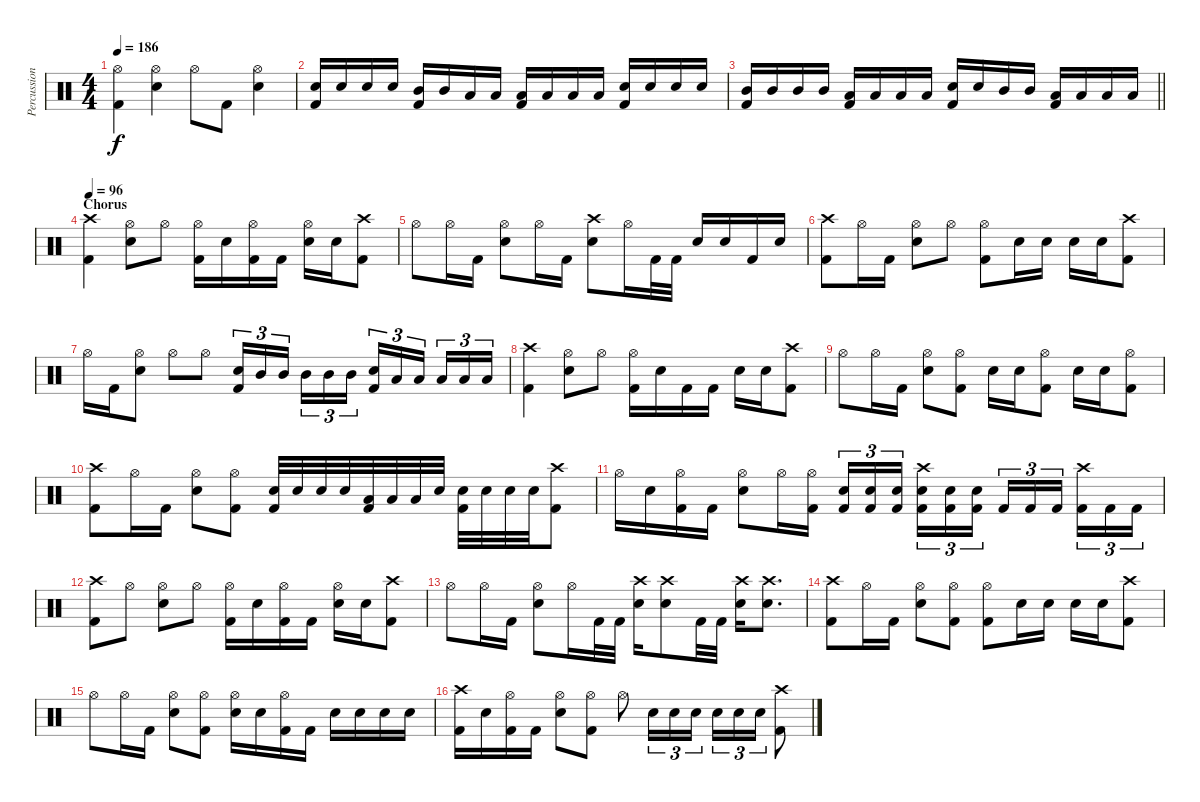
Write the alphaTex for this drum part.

\track ("Percussion" "Percussion") {instrument percussion}
\staff {score}
\articulation defaults
\ts (4 4)
\tempo 186
\clef neutral
\ks c
("Hi-Hat (open)" "Kick (hit) 2").4{dy f} ("Hi-Hat (open)" "Snare (hit) 2").4 "Hi-Hat (open)".8 "Kick (hit) 2".8 ("Hi-Hat (open)" "Snare (hit) 2").4 |
("Snare (hit) 2" "Kick (hit) 2").16 "Snare (hit) 2".16 "Snare (hit) 2".16 "Snare (hit) 2".16 ("Mid Tom (hit)" "Kick (hit) 2").16 "Mid Tom (hit)".16 "Low Tom (hit)".16 "Low Tom (hit)".16 ("Low Tom (hit)" "Kick (hit) 2").16 "Low Tom (hit)".16 "Low Tom (hit)".16 "Low Tom (hit)".16 ("Snare (hit) 2" "Kick (hit) 2").16 "Snare (hit) 2".16 "Snare (hit) 2".16 "Snare (hit) 2".16 |
\barLineRight lightlight
("Mid Tom (hit)" "Kick (hit) 2").16 "Mid Tom (hit)".16 "Mid Tom (hit)".16 "Mid Tom (hit)".16 ("Low Tom (hit)" "Kick (hit) 2").16 "Low Tom (hit)".16 "Low Tom (hit)".16 "Low Tom (hit)".16 ("Snare (hit) 2" "Kick (hit) 2").16 "Snare (hit) 2".16 "Mid Tom (hit)".16 "Mid Tom (hit)".16 ("Low Tom (hit)" "Kick (hit) 2").16 "Low Tom (hit)".16 "Low Tom (hit)".16 "Low Tom (hit)".16 |
\section ("" "Chorus")
\tempo 96
("Crash high (hit)" "Kick (hit) 2").4 ("Hi-Hat (open)" "Snare (hit) 2").8 "Hi-Hat (open)".8 ("Hi-Hat (open)" "Kick (hit) 2").16 "Snare (hit) 2".16 ("Hi-Hat (open)" "Kick (hit) 2").16 "Kick (hit) 2".16 ("Hi-Hat (open)" "Snare (hit) 2").16 "Snare (hit) 2".16 ("Crash high (hit)" "Kick (hit) 2").8 |
"Hi-Hat (open)".8 "Hi-Hat (open)".16 "Kick (hit) 2".16 ("Hi-Hat (open)" "Snare (hit) 2").8 "Hi-Hat (open)".16 "Kick (hit) 2".16 ("Crash high (hit)" "Snare (hit) 2").8 "Hi-Hat (open)".16 "Kick (hit) 2".32 "Kick (hit) 2".32 "Snare (hit) 2".16 "Snare (hit) 2".16 "Kick (hit) 2".16 "Snare (hit) 2".16 |
("Crash high (hit)" "Kick (hit) 2").8 "Hi-Hat (open)".16 "Kick (hit) 2".16 ("Hi-Hat (open)" "Snare (hit) 2").8 "Hi-Hat (open)".8 ("Hi-Hat (open)" "Kick (hit) 2").8 "Snare (hit) 2".16 "Snare (hit) 2".16 "Snare (hit) 2".16 "Snare (hit) 2".16 ("Crash high (hit)" "Kick (hit) 2").8 |
"Hi-Hat (open)".16 "Kick (hit) 2".16 ("Hi-Hat (open)" "Snare (hit) 2").8 "Hi-Hat (open)".8 "Hi-Hat (open)".8 ("Snare (hit) 2" "Kick (hit) 2").16{tu (3 2)} "Mid Tom (hit)".16{tu (3 2)} "Mid Tom (hit)".16{tu (3 2)} "Mid Tom (hit)".16{tu (3 2)} "Mid Tom (hit)".16{tu (3 2)} "Mid Tom (hit)".16{tu (3 2)} ("Snare (hit) 2" "Kick (hit) 2").16{tu (3 2)} "Low Tom (hit)".16{tu (3 2)} "Low Tom (hit)".16{tu (3 2)} "Low Tom (hit)".16{tu (3 2)} "Low Tom (hit)".16{tu (3 2)} "Low Tom (hit)".16{tu (3 2)} |
("Crash high (hit)" "Kick (hit) 2").4 ("Hi-Hat (open)" "Snare (hit) 2").8 "Hi-Hat (open)".8 ("Hi-Hat (open)" "Kick (hit) 2").16 "Snare (hit) 2".16 "Kick (hit) 2".16 "Kick (hit) 2".16 "Snare (hit) 2".16 "Snare (hit) 2".16 ("Crash high (hit)" "Kick (hit) 2").8 |
"Hi-Hat (open)".8 "Hi-Hat (open)".16 "Kick (hit) 2".16 ("Hi-Hat (open)" "Snare (hit) 2").8 ("Hi-Hat (open)" "Kick (hit) 2").8 "Snare (hit) 2".16 "Snare (hit) 2".16 ("Hi-Hat (open)" "Kick (hit) 2").8 "Snare (hit) 2".16 "Snare (hit) 2".16 ("Hi-Hat (open)" "Kick (hit) 2").8 |
("Crash high (hit)" "Kick (hit) 2").8 "Hi-Hat (open)".16 "Kick (hit) 2".16 ("Hi-Hat (open)" "Snare (hit) 2").8 ("Hi-Hat (open)" "Kick (hit) 2").8 ("Snare (hit) 2" "Kick (hit) 2").32 "Snare (hit) 2".32 "Snare (hit) 2".32 "Snare (hit) 2".32 ("Low Tom (hit)" "Kick (hit) 2").32 "Low Tom (hit)".32 "Low Tom (hit)".32 "Snare (hit) 2".32 ("Snare (hit) 2" "Kick (hit) 2").32 "Snare (hit) 2".32 "Snare (hit) 2".32 "Snare (hit) 2".32 ("Crash high (hit)" "Kick (hit) 2").8 |
"Hi-Hat (open)".16 "Snare (hit) 2".16 ("Hi-Hat (open)" "Kick (hit) 2").16 "Kick (hit) 2".16 ("Hi-Hat (open)" "Snare (hit) 2").8 "Hi-Hat (open)".16 ("Hi-Hat (open)" "Kick (hit) 2").16 ("Snare (hit) 2" "Kick (hit) 2").16{tu (3 2)} ("Snare (hit) 2" "Kick (hit) 2").16{tu (3 2)} ("Snare (hit) 2" "Kick (hit) 2").16{tu (3 2)} ("Crash high (hit)" "Snare (hit) 2" "Kick (hit) 2").16{tu (3 2)} ("Snare (hit) 2" "Kick (hit) 2").16{tu (3 2)} ("Snare (hit) 2" "Kick (hit) 2").16{tu (3 2)} "Kick (hit) 2".16{tu (3 2)} "Kick (hit) 2".16{tu (3 2)} "Kick (hit) 2".16{tu (3 2)} ("Crash high (hit)" "Kick (hit) 2").16{tu (3 2)} "Kick (hit) 2".16{tu (3 2)} "Kick (hit) 2".16{tu (3 2)} |
("Crash high (hit)" "Kick (hit) 2").8 "Hi-Hat (open)".8 ("Hi-Hat (open)" "Snare (hit) 2").8 "Hi-Hat (open)".8 ("Hi-Hat (open)" "Kick (hit) 2").16 "Snare (hit) 2".16 ("Hi-Hat (open)" "Kick (hit) 2").16 "Kick (hit) 2".16 ("Hi-Hat (open)" "Snare (hit) 2").16 "Snare (hit) 2".16 ("Crash high (hit)" "Kick (hit) 2").8 |
"Hi-Hat (open)".8 "Hi-Hat (open)".16 "Kick (hit) 2".16 ("Hi-Hat (open)" "Snare (hit) 2").8 "Hi-Hat (open)".16 "Kick (hit) 2".32 "Kick (hit) 2".32 ("Crash high (hit)" "Snare (hit) 2").16 ("Crash high (hit)" "Snare (hit) 2").8 "Kick (hit) 2".32 "Kick (hit) 2".32 ("Crash high (hit)" "Snare (hit) 2").16 ("Crash high (hit)" "Snare (hit) 2").8{d} |
("Crash high (hit)" "Kick (hit) 2").8 "Hi-Hat (open)".16 "Kick (hit) 2".16 ("Hi-Hat (open)" "Snare (hit) 2").8 ("Hi-Hat (open)" "Kick (hit) 2").8 ("Hi-Hat (open)" "Kick (hit) 2").8 "Snare (hit) 2".16 "Snare (hit) 2".16 "Snare (hit) 2".16 "Snare (hit) 2".16 ("Crash high (hit)" "Kick (hit) 2").8 |
"Hi-Hat (open)".8 "Hi-Hat (open)".16 "Kick (hit) 2".16 ("Hi-Hat (open)" "Snare (hit) 2").8 ("Hi-Hat (open)" "Kick (hit) 2").8 ("Hi-Hat (open)" "Snare (hit) 2").16 "Snare (hit) 2".16 ("Hi-Hat (open)" "Kick (hit) 2").16 "Kick (hit) 2".16 "Snare (hit) 2".16 "Snare (hit) 2".16 "Snare (hit) 2".16 "Snare (hit) 2".16 |
("Crash high (hit)" "Kick (hit) 2").16 "Snare (hit) 2".16 ("Hi-Hat (open)" "Kick (hit) 2").16 "Kick (hit) 2".16 ("Hi-Hat (open)" "Snare (hit) 2").8 ("Hi-Hat (open)" "Kick (hit) 2").8 "Hi-Hat (open)".8 "Snare (hit) 2".16{tu (3 2)} "Snare (hit) 2".16{tu (3 2)} "Snare (hit) 2".16{tu (3 2)} "Snare (hit) 2".16{tu (3 2)} "Snare (hit) 2".16{tu (3 2)} "Snare (hit) 2".16{tu (3 2)} ("Crash high (hit)" "Kick (hit) 2").8
